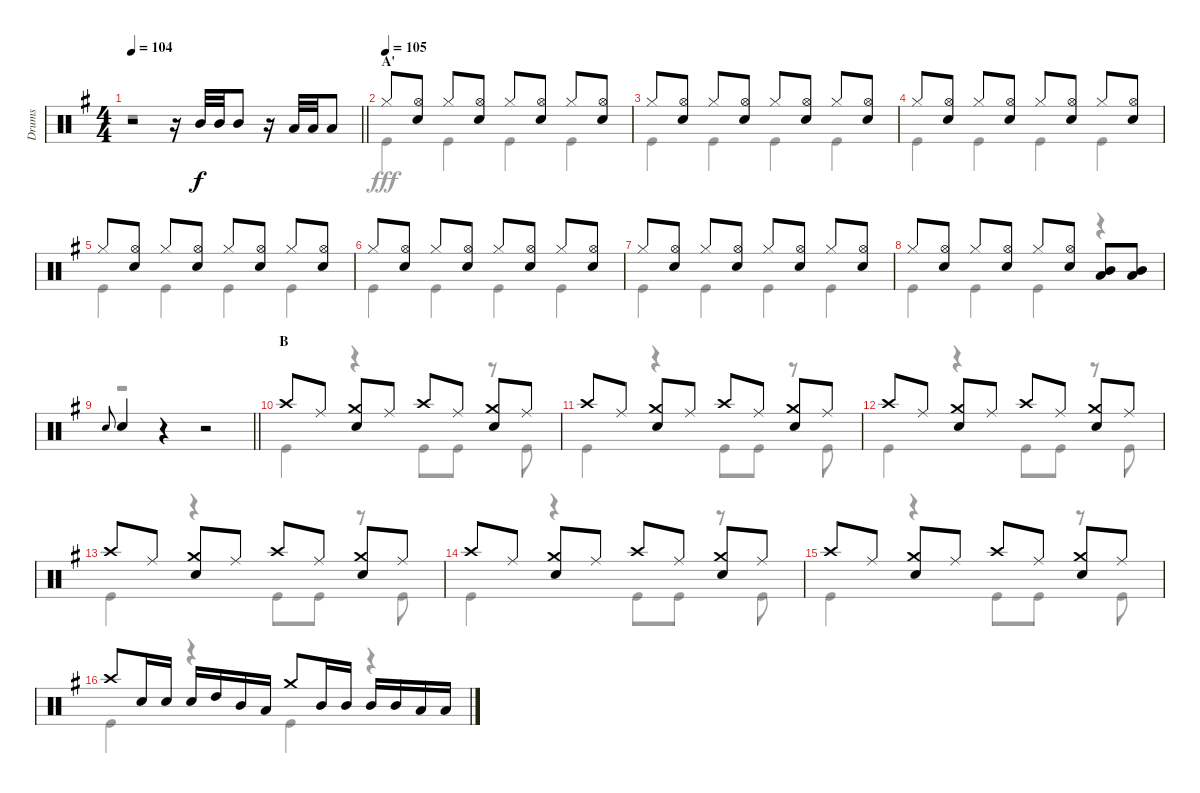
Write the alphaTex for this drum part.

\track ("Drums" "Drums") {instrument percussion}
\staff {score}
\articulation defaults
\voice
\ts (4 4)
\tempo 104
\clef neutral
\barLineRight lightlight
\ks g
r.2{dy f} r.16 "Mid Tom (hit)".32 "Mid Tom (hit)".32 "Mid Tom (hit)".8 r.16 "Low Tom (hit)".32 "Low Tom (hit)".32 "Low Tom (hit)".8 |
\section ("" "A'")
\tempo (105)
"Hi-Hat (closed)".8 ("Hi-Hat (open)" "Snare (hit) 2").8 "Hi-Hat (closed)".8 ("Hi-Hat (open)" "Snare (hit) 2").8 "Hi-Hat (closed)".8 ("Hi-Hat (open)" "Snare (hit) 2").8 "Hi-Hat (closed)".8 ("Hi-Hat (open)" "Snare (hit) 2").8 |
"Hi-Hat (closed)".8 ("Hi-Hat (open)" "Snare (hit) 2").8 "Hi-Hat (closed)".8 ("Hi-Hat (open)" "Snare (hit) 2").8 "Hi-Hat (closed)".8 ("Hi-Hat (open)" "Snare (hit) 2").8 "Hi-Hat (closed)".8 ("Hi-Hat (open)" "Snare (hit) 2").8 |
"Hi-Hat (closed)".8 ("Hi-Hat (open)" "Snare (hit) 2").8 "Hi-Hat (closed)".8 ("Hi-Hat (open)" "Snare (hit) 2").8 "Hi-Hat (closed)".8 ("Hi-Hat (open)" "Snare (hit) 2").8 "Hi-Hat (closed)".8 ("Hi-Hat (open)" "Snare (hit) 2").8 |
"Hi-Hat (closed)".8 ("Hi-Hat (open)" "Snare (hit) 2").8 "Hi-Hat (closed)".8 ("Hi-Hat (open)" "Snare (hit) 2").8 "Hi-Hat (closed)".8 ("Hi-Hat (open)" "Snare (hit) 2").8 "Hi-Hat (closed)".8 ("Hi-Hat (open)" "Snare (hit) 2").8 |
"Hi-Hat (closed)".8 ("Hi-Hat (open)" "Snare (hit) 2").8 "Hi-Hat (closed)".8 ("Hi-Hat (open)" "Snare (hit) 2").8 "Hi-Hat (closed)".8 ("Hi-Hat (open)" "Snare (hit) 2").8 "Hi-Hat (closed)".8 ("Hi-Hat (open)" "Snare (hit) 2").8 |
"Hi-Hat (closed)".8 ("Hi-Hat (open)" "Snare (hit) 2").8 "Hi-Hat (closed)".8 ("Hi-Hat (open)" "Snare (hit) 2").8 "Hi-Hat (closed)".8 ("Hi-Hat (open)" "Snare (hit) 2").8 "Hi-Hat (closed)".8 ("Hi-Hat (open)" "Snare (hit) 2").8 |
"Hi-Hat (closed)".8 ("Hi-Hat (open)" "Snare (hit) 2").8 "Hi-Hat (closed)".8 ("Hi-Hat (open)" "Snare (hit) 2").8 "Hi-Hat (closed)".8 ("Hi-Hat (open)" "Snare (hit) 2").8 ("Mid Tom (hit)" "Low Tom (hit)").8 ("Mid Tom (hit)" "Low Tom (hit)").8 |
\barLineRight lightlight "Snare (hit) 2".8{gr onbeat} "Snare (hit) 2".4
r.4 r.2 |
\section ("" "B")
"Crash high (hit)".8 "Ride (middle)".8 ("Crash medium (hit)" "Snare (hit) 2").8 "Ride (middle)".8 "Crash high (hit)".8 "Ride (middle)".8 ("Crash medium (hit)" "Snare (hit) 2").8 "Ride (middle)".8 |
"Crash high (hit)".8 "Ride (middle)".8 ("Crash medium (hit)" "Snare (hit) 2").8 "Ride (middle)".8 "Crash high (hit)".8 "Ride (middle)".8 ("Crash medium (hit)" "Snare (hit) 2").8 "Ride (middle)".8 |
"Crash high (hit)".8 "Ride (middle)".8 ("Crash medium (hit)" "Snare (hit) 2").8 "Ride (middle)".8 "Crash high (hit)".8 "Ride (middle)".8 ("Crash medium (hit)" "Snare (hit) 2").8 "Ride (middle)".8 |
"Crash high (hit)".8 "Ride (middle)".8 ("Crash medium (hit)" "Snare (hit) 2").8 "Ride (middle)".8 "Crash high (hit)".8 "Ride (middle)".8 ("Crash medium (hit)" "Snare (hit) 2").8 "Ride (middle)".8 |
"Crash high (hit)".8 "Ride (middle)".8 ("Crash medium (hit)" "Snare (hit) 2").8 "Ride (middle)".8 "Crash high (hit)".8 "Ride (middle)".8 ("Crash medium (hit)" "Snare (hit) 2").8 "Ride (middle)".8 |
"Crash high (hit)".8 "Ride (middle)".8 ("Crash medium (hit)" "Snare (hit) 2").8 "Ride (middle)".8 "Crash high (hit)".8 "Ride (middle)".8 ("Crash medium (hit)" "Snare (hit) 2").8 "Ride (middle)".8 |
"Crash high (hit)".8 "Snare (hit) 2".16 "Snare (hit) 2".16 "Snare (hit) 2".16 "High Tom (hit)".16 "Mid Tom (hit)".16 "Low Tom (hit)".16 "Crash medium (hit)".8 "Mid Tom (hit)".16 "Mid Tom (hit)".16 "Mid Tom (hit)".16 "Mid Tom (hit)".16 "Low Tom (hit)".16 "Low Tom (hit)".16
\voice
\clef neutral
\ottava regular
\simile none
\barLineRight lightlight
\ks g
r.1{dy fff} |
"Kick (hit)".4 "Kick (hit)".4 "Kick (hit)".4 "Kick (hit)".4 |
"Kick (hit)".4 "Kick (hit)".4 "Kick (hit)".4 "Kick (hit)".4 |
"Kick (hit)".4 "Kick (hit)".4 "Kick (hit)".4 "Kick (hit)".4 |
"Kick (hit)".4 "Kick (hit)".4 "Kick (hit)".4 "Kick (hit)".4 |
"Kick (hit)".4 "Kick (hit)".4 "Kick (hit)".4 "Kick (hit)".4 |
"Kick (hit)".4 "Kick (hit)".4 "Kick (hit)".4 "Kick (hit)".4 |
"Kick (hit)".4 "Kick (hit)".4 "Kick (hit)".4 r.4 |
\barLineRight lightlight
r.1 |
"Kick (hit)".4 r.4 "Kick (hit)".8 "Kick (hit)".8 r.8 "Kick (hit)".8 |
"Kick (hit)".4 r.4 "Kick (hit)".8 "Kick (hit)".8 r.8 "Kick (hit)".8 |
"Kick (hit)".4 r.4 "Kick (hit)".8 "Kick (hit)".8 r.8 "Kick (hit)".8 |
"Kick (hit)".4 r.4 "Kick (hit)".8 "Kick (hit)".8 r.8 "Kick (hit)".8 |
"Kick (hit)".4 r.4 "Kick (hit)".8 "Kick (hit)".8 r.8 "Kick (hit)".8 |
"Kick (hit)".4 r.4 "Kick (hit)".8 "Kick (hit)".8 r.8 "Kick (hit)".8 |
"Kick (hit)".4 r.4 "Kick (hit)".4 r.4
